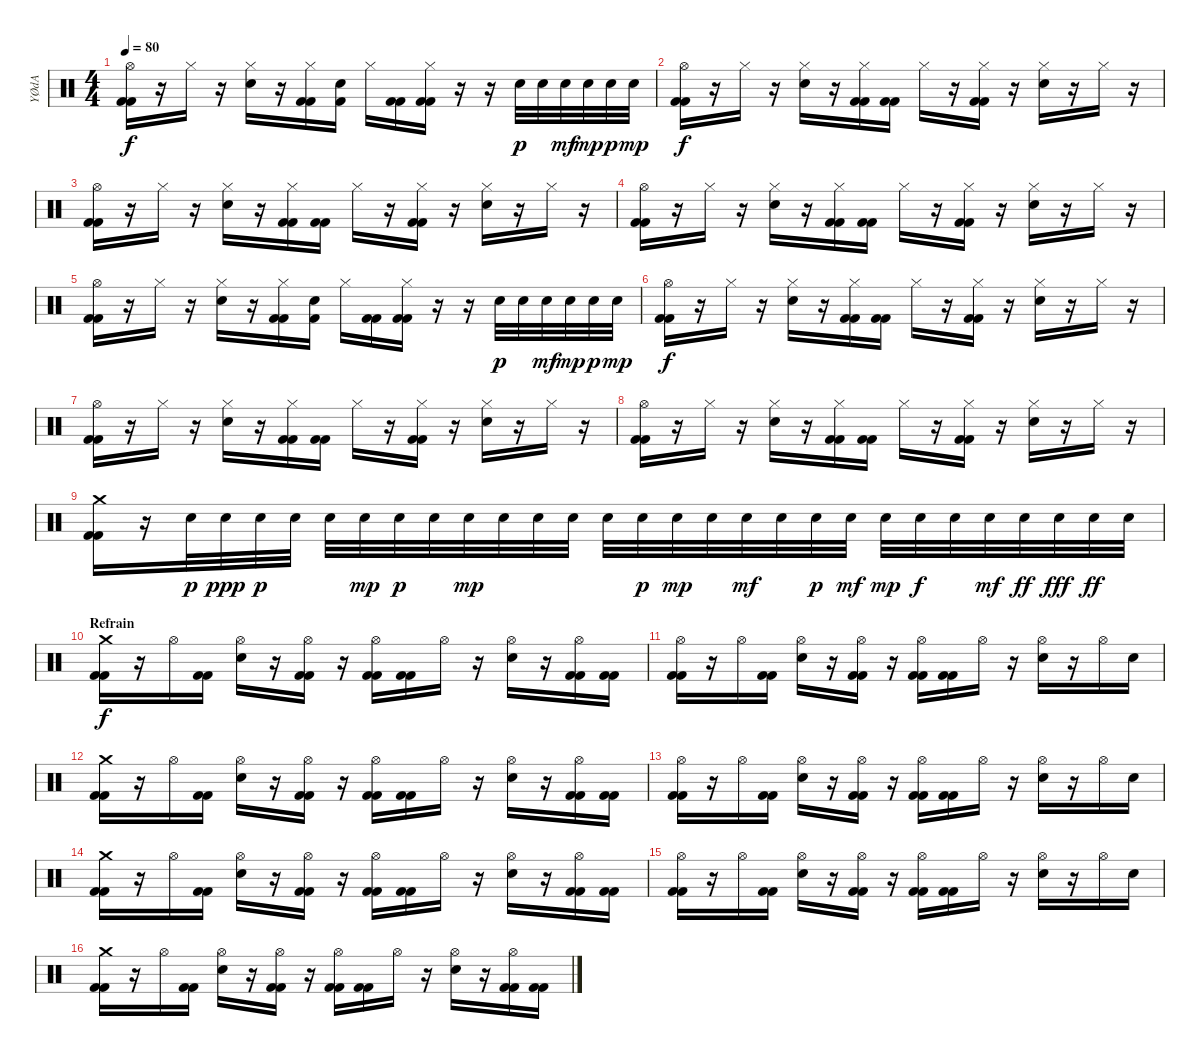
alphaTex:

\track ("YØdA" "YØdA") {instrument percussion}
\staff {score}
\articulation defaults
\ts (4 4)
\tempo 80
\clef neutral
\ks c
("Kick (hit) 2" "Hi-Hat (open)" "Kick (hit) 2").16{dy f} r.16 "Hi-Hat (closed)".16 r.16 ("Hi-Hat (closed)" "Electric Snare (hit)").16 r.16 ("Kick (hit) 2" "Hi-Hat (closed)" "Kick (hit) 2").16 ("Kick (hit) 2" "Electric Snare (hit)").16 "Hi-Hat (closed)".16 ("Kick (hit) 2" "Kick (hit) 2").16 ("Kick (hit) 2" "Hi-Hat (closed)" "Kick (hit) 2").16 r.16 r.16 "Electric Snare (hit)".32{dy p} "Electric Snare (hit)".32 "Electric Snare (hit)".32{dy mf} "Electric Snare (hit)".32{dy mp} "Electric Snare (hit)".32{dy p} "Electric Snare (hit)".32{dy mp} |
("Kick (hit) 2" "Hi-Hat (open)" "Kick (hit) 2").16{dy f} r.16 "Hi-Hat (closed)".16 r.16 ("Hi-Hat (closed)" "Electric Snare (hit)").16 r.16 ("Kick (hit) 2" "Hi-Hat (closed)" "Kick (hit) 2").16 ("Kick (hit) 2" "Kick (hit) 2").16 "Hi-Hat (closed)".16 r.16 ("Kick (hit) 2" "Hi-Hat (closed)" "Kick (hit) 2").16 r.16 ("Hi-Hat (closed)" "Electric Snare (hit)").16 r.16 "Hi-Hat (closed)".16 r.16 |
("Kick (hit) 2" "Hi-Hat (open)" "Kick (hit) 2").16 r.16 "Hi-Hat (closed)".16 r.16 ("Hi-Hat (closed)" "Electric Snare (hit)").16 r.16 ("Kick (hit) 2" "Hi-Hat (closed)" "Kick (hit) 2").16 ("Kick (hit) 2" "Kick (hit) 2").16 "Hi-Hat (closed)".16 r.16 ("Kick (hit) 2" "Hi-Hat (closed)" "Kick (hit) 2").16 r.16 ("Hi-Hat (closed)" "Electric Snare (hit)").16 r.16 "Hi-Hat (closed)".16 r.16 |
("Kick (hit) 2" "Hi-Hat (open)" "Kick (hit) 2").16 r.16 "Hi-Hat (closed)".16 r.16 ("Hi-Hat (closed)" "Electric Snare (hit)").16 r.16 ("Kick (hit) 2" "Hi-Hat (closed)" "Kick (hit) 2").16 ("Kick (hit) 2" "Kick (hit) 2").16 "Hi-Hat (closed)".16 r.16 ("Kick (hit) 2" "Hi-Hat (closed)" "Kick (hit) 2").16 r.16 ("Hi-Hat (closed)" "Electric Snare (hit)").16 r.16 "Hi-Hat (closed)".16 r.16 |
("Kick (hit) 2" "Hi-Hat (open)" "Kick (hit) 2").16 r.16 "Hi-Hat (closed)".16 r.16 ("Hi-Hat (closed)" "Electric Snare (hit)").16 r.16 ("Kick (hit) 2" "Hi-Hat (closed)" "Kick (hit) 2").16 ("Kick (hit) 2" "Electric Snare (hit)").16 "Hi-Hat (closed)".16 ("Kick (hit) 2" "Kick (hit) 2").16 ("Kick (hit) 2" "Hi-Hat (closed)" "Kick (hit) 2").16 r.16 r.16 "Electric Snare (hit)".32{dy p} "Electric Snare (hit)".32 "Electric Snare (hit)".32{dy mf} "Electric Snare (hit)".32{dy mp} "Electric Snare (hit)".32{dy p} "Electric Snare (hit)".32{dy mp} |
("Kick (hit) 2" "Hi-Hat (open)" "Kick (hit) 2").16{dy f} r.16 "Hi-Hat (closed)".16 r.16 ("Hi-Hat (closed)" "Electric Snare (hit)").16 r.16 ("Kick (hit) 2" "Hi-Hat (closed)" "Kick (hit) 2").16 ("Kick (hit) 2" "Kick (hit) 2").16 "Hi-Hat (closed)".16 r.16 ("Kick (hit) 2" "Hi-Hat (closed)" "Kick (hit) 2").16 r.16 ("Hi-Hat (closed)" "Electric Snare (hit)").16 r.16 "Hi-Hat (closed)".16 r.16 |
("Kick (hit) 2" "Hi-Hat (open)" "Kick (hit) 2").16 r.16 "Hi-Hat (closed)".16 r.16 ("Hi-Hat (closed)" "Electric Snare (hit)").16 r.16 ("Kick (hit) 2" "Hi-Hat (closed)" "Kick (hit) 2").16 ("Kick (hit) 2" "Kick (hit) 2").16 "Hi-Hat (closed)".16 r.16 ("Kick (hit) 2" "Hi-Hat (closed)" "Kick (hit) 2").16 r.16 ("Hi-Hat (closed)" "Electric Snare (hit)").16 r.16 "Hi-Hat (closed)".16 r.16 |
("Kick (hit) 2" "Hi-Hat (open)" "Kick (hit) 2").16 r.16 "Hi-Hat (closed)".16 r.16 ("Hi-Hat (closed)" "Electric Snare (hit)").16 r.16 ("Kick (hit) 2" "Hi-Hat (closed)" "Kick (hit) 2").16 ("Kick (hit) 2" "Kick (hit) 2").16 "Hi-Hat (closed)".16 r.16 ("Kick (hit) 2" "Hi-Hat (closed)" "Kick (hit) 2").16 r.16 ("Hi-Hat (closed)" "Electric Snare (hit)").16 r.16 "Hi-Hat (closed)".16 r.16 |
("Kick (hit) 2" "Crash medium (hit)" "Kick (hit) 2").16 r.16 "Electric Snare (hit)".32{dy p} "Electric Snare (hit)".32{dy ppp} "Electric Snare (hit)".32{dy p} "Electric Snare (hit)".32 "Electric Snare (hit)".32 "Electric Snare (hit)".32{dy mp} "Electric Snare (hit)".32{dy p} "Electric Snare (hit)".32 "Electric Snare (hit)".32{dy mp} "Electric Snare (hit)".32 "Electric Snare (hit)".32 "Electric Snare (hit)".32 "Electric Snare (hit)".32 "Electric Snare (hit)".32{dy p} "Electric Snare (hit)".32{dy mp} "Electric Snare (hit)".32 "Electric Snare (hit)".32{dy mf} "Electric Snare (hit)".32 "Electric Snare (hit)".32{dy p} "Electric Snare (hit)".32{dy mf} "Electric Snare (hit)".32{dy mp} "Electric Snare (hit)".32{dy f} "Electric Snare (hit)".32 "Electric Snare (hit)".32{dy mf} "Electric Snare (hit)".32{dy ff} "Electric Snare (hit)".32{dy fff} "Electric Snare (hit)".32{dy ff} "Electric Snare (hit)".32 |
\section ("" "Refrain")
("Kick (hit) 2" "Crash medium (hit)" "Kick (hit) 2").16{dy f} r.16 "Hi-Hat (open)".16 ("Kick (hit) 2" "Kick (hit) 2").16 ("Hi-Hat (open)" "Electric Snare (hit)").16 r.16 ("Kick (hit) 2" "Hi-Hat (open)" "Kick (hit) 2").16 r.16 ("Kick (hit) 2" "Hi-Hat (open)" "Kick (hit) 2").16 ("Kick (hit) 2" "Kick (hit) 2").16 "Hi-Hat (open)".16 r.16 ("Hi-Hat (open)" "Electric Snare (hit)").16 r.16 ("Kick (hit) 2" "Hi-Hat (open)" "Kick (hit) 2").16 ("Kick (hit) 2" "Kick (hit) 2").16 |
("Kick (hit) 2" "Hi-Hat (open)" "Kick (hit) 2").16 r.16 "Hi-Hat (open)".16 ("Kick (hit) 2" "Kick (hit) 2").16 ("Hi-Hat (open)" "Electric Snare (hit)").16 r.16 ("Kick (hit) 2" "Hi-Hat (open)" "Kick (hit) 2").16 r.16 ("Kick (hit) 2" "Hi-Hat (open)" "Kick (hit) 2").16 ("Kick (hit) 2" "Kick (hit) 2").16 "Hi-Hat (open)".16 r.16 ("Hi-Hat (open)" "Electric Snare (hit)").16 r.16 "Hi-Hat (open)".16 "Electric Snare (hit)".16 |
("Kick (hit) 2" "Crash medium (hit)" "Kick (hit) 2").16 r.16 "Hi-Hat (open)".16 ("Kick (hit) 2" "Kick (hit) 2").16 ("Hi-Hat (open)" "Electric Snare (hit)").16 r.16 ("Kick (hit) 2" "Hi-Hat (open)" "Kick (hit) 2").16 r.16 ("Kick (hit) 2" "Hi-Hat (open)" "Kick (hit) 2").16 ("Kick (hit) 2" "Kick (hit) 2").16 "Hi-Hat (open)".16 r.16 ("Hi-Hat (open)" "Electric Snare (hit)").16 r.16 ("Kick (hit) 2" "Hi-Hat (open)" "Kick (hit) 2").16 ("Kick (hit) 2" "Kick (hit) 2").16 |
("Kick (hit) 2" "Hi-Hat (open)" "Kick (hit) 2").16 r.16 "Hi-Hat (open)".16 ("Kick (hit) 2" "Kick (hit) 2").16 ("Hi-Hat (open)" "Electric Snare (hit)").16 r.16 ("Kick (hit) 2" "Hi-Hat (open)" "Kick (hit) 2").16 r.16 ("Kick (hit) 2" "Hi-Hat (open)" "Kick (hit) 2").16 ("Kick (hit) 2" "Kick (hit) 2").16 "Hi-Hat (open)".16 r.16 ("Hi-Hat (open)" "Electric Snare (hit)").16 r.16 "Hi-Hat (open)".16 "Electric Snare (hit)".16 |
("Kick (hit) 2" "Crash medium (hit)" "Kick (hit) 2").16 r.16 "Hi-Hat (open)".16 ("Kick (hit) 2" "Kick (hit) 2").16 ("Hi-Hat (open)" "Electric Snare (hit)").16 r.16 ("Kick (hit) 2" "Hi-Hat (open)" "Kick (hit) 2").16 r.16 ("Kick (hit) 2" "Hi-Hat (open)" "Kick (hit) 2").16 ("Kick (hit) 2" "Kick (hit) 2").16 "Hi-Hat (open)".16 r.16 ("Hi-Hat (open)" "Electric Snare (hit)").16 r.16 ("Kick (hit) 2" "Hi-Hat (open)" "Kick (hit) 2").16 ("Kick (hit) 2" "Kick (hit) 2").16 |
("Kick (hit) 2" "Hi-Hat (open)" "Kick (hit) 2").16 r.16 "Hi-Hat (open)".16 ("Kick (hit) 2" "Kick (hit) 2").16 ("Hi-Hat (open)" "Electric Snare (hit)").16 r.16 ("Kick (hit) 2" "Hi-Hat (open)" "Kick (hit) 2").16 r.16 ("Kick (hit) 2" "Hi-Hat (open)" "Kick (hit) 2").16 ("Kick (hit) 2" "Kick (hit) 2").16 "Hi-Hat (open)".16 r.16 ("Hi-Hat (open)" "Electric Snare (hit)").16 r.16 "Hi-Hat (open)".16 "Electric Snare (hit)".16 |
("Kick (hit) 2" "Crash medium (hit)" "Kick (hit) 2").16 r.16 "Hi-Hat (open)".16 ("Kick (hit) 2" "Kick (hit) 2").16 ("Hi-Hat (open)" "Electric Snare (hit)").16 r.16 ("Kick (hit) 2" "Hi-Hat (open)" "Kick (hit) 2").16 r.16 ("Kick (hit) 2" "Hi-Hat (open)" "Kick (hit) 2").16 ("Kick (hit) 2" "Kick (hit) 2").16 "Hi-Hat (open)".16 r.16 ("Hi-Hat (open)" "Electric Snare (hit)").16 r.16 ("Kick (hit) 2" "Hi-Hat (open)" "Kick (hit) 2").16 ("Kick (hit) 2" "Kick (hit) 2").16
